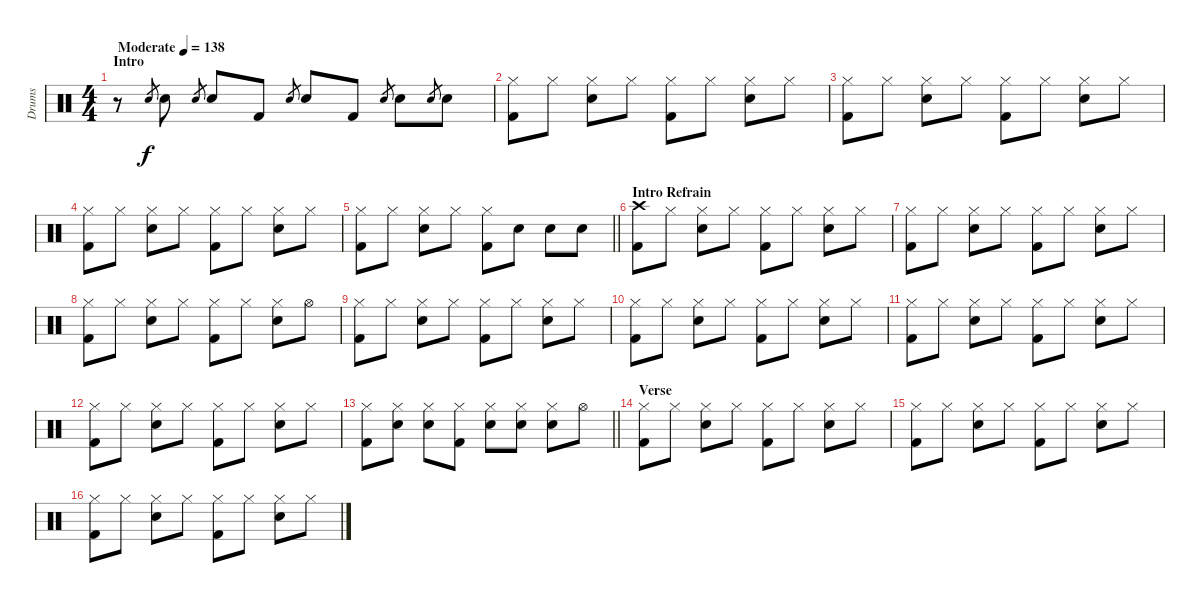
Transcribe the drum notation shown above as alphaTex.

\track ("Drums" "Drums") {instrument percussion}
\staff {score}
\articulation defaults
\ts (4 4)
\section ("" "Intro")
\tempo (138 "Moderate")
\clef neutral
\ks c
r.8{dy f} "Snare (hit) 2".8{gr} "Snare (hit) 2".8 "Snare (hit) 2".8{gr} "Snare (hit) 2".8 "Kick (hit) 2".8 "Snare (hit) 2".8{gr} "Snare (hit) 2".8 "Kick (hit) 2".8 "Snare (hit) 2".8{gr} "Snare (hit) 2".8 "Snare (hit) 2".8{gr} "Snare (hit) 2".8 |
("Hi-Hat (closed)" "Kick (hit) 2").8 "Hi-Hat (closed)".8 ("Hi-Hat (closed)" "Snare (hit) 2").8 "Hi-Hat (closed)".8 ("Hi-Hat (closed)" "Kick (hit) 2").8 "Hi-Hat (closed)".8 ("Hi-Hat (closed)" "Snare (hit) 2").8 "Hi-Hat (closed)".8 |
("Hi-Hat (closed)" "Kick (hit) 2").8 "Hi-Hat (closed)".8 ("Hi-Hat (closed)" "Snare (hit) 2").8 "Hi-Hat (closed)".8 ("Hi-Hat (closed)" "Kick (hit) 2").8 "Hi-Hat (closed)".8 ("Hi-Hat (closed)" "Snare (hit) 2").8 "Hi-Hat (closed)".8 |
("Hi-Hat (closed)" "Kick (hit) 2").8 "Hi-Hat (closed)".8 ("Hi-Hat (closed)" "Snare (hit) 2").8 "Hi-Hat (closed)".8 ("Hi-Hat (closed)" "Kick (hit) 2").8 "Hi-Hat (closed)".8 ("Hi-Hat (closed)" "Snare (hit) 2").8 "Hi-Hat (closed)".8 |
\barLineRight lightlight
("Hi-Hat (closed)" "Kick (hit) 2").8 "Hi-Hat (closed)".8 ("Hi-Hat (closed)" "Snare (hit) 2").8 "Hi-Hat (closed)".8 ("Hi-Hat (closed)" "Kick (hit) 2").8 "Snare (hit) 2".8 "Snare (hit) 2".8 "Snare (hit) 2".8 |
\section ("" "Intro Refrain")
("Crash high (hit)" "Kick (hit) 2").8 "Hi-Hat (closed)".8 ("Hi-Hat (closed)" "Snare (hit) 2").8 "Hi-Hat (closed)".8 ("Hi-Hat (closed)" "Kick (hit) 2").8 "Hi-Hat (closed)".8 ("Hi-Hat (closed)" "Snare (hit) 2").8 "Hi-Hat (closed)".8 |
("Hi-Hat (closed)" "Kick (hit) 2").8 "Hi-Hat (closed)".8 ("Hi-Hat (closed)" "Snare (hit) 2").8 "Hi-Hat (closed)".8 ("Hi-Hat (closed)" "Kick (hit) 2").8 "Hi-Hat (closed)".8 ("Hi-Hat (closed)" "Snare (hit) 2").8 "Hi-Hat (closed)".8 |
("Hi-Hat (closed)" "Kick (hit) 2").8 "Hi-Hat (closed)".8 ("Hi-Hat (closed)" "Snare (hit) 2").8 "Hi-Hat (closed)".8 ("Hi-Hat (closed)" "Kick (hit) 2").8 "Hi-Hat (closed)".8 ("Hi-Hat (closed)" "Snare (hit) 2").8 "Hi-Hat (open)".8 |
("Hi-Hat (closed)" "Kick (hit) 2").8 "Hi-Hat (closed)".8 ("Hi-Hat (closed)" "Snare (hit) 2").8 "Hi-Hat (closed)".8 ("Hi-Hat (closed)" "Kick (hit) 2").8 "Hi-Hat (closed)".8 ("Hi-Hat (closed)" "Snare (hit) 2").8 "Hi-Hat (closed)".8 |
("Hi-Hat (closed)" "Kick (hit) 2").8 "Hi-Hat (closed)".8 ("Hi-Hat (closed)" "Snare (hit) 2").8 "Hi-Hat (closed)".8 ("Hi-Hat (closed)" "Kick (hit) 2").8 "Hi-Hat (closed)".8 ("Hi-Hat (closed)" "Snare (hit) 2").8 "Hi-Hat (closed)".8 |
("Hi-Hat (closed)" "Kick (hit) 2").8 "Hi-Hat (closed)".8 ("Hi-Hat (closed)" "Snare (hit) 2").8 "Hi-Hat (closed)".8 ("Hi-Hat (closed)" "Kick (hit) 2").8 "Hi-Hat (closed)".8 ("Hi-Hat (closed)" "Snare (hit) 2").8 "Hi-Hat (closed)".8 |
("Hi-Hat (closed)" "Kick (hit) 2").8 "Hi-Hat (closed)".8 ("Hi-Hat (closed)" "Snare (hit) 2").8 "Hi-Hat (closed)".8 ("Hi-Hat (closed)" "Kick (hit) 2").8 "Hi-Hat (closed)".8 ("Hi-Hat (closed)" "Snare (hit) 2").8 "Hi-Hat (closed)".8 |
\barLineRight lightlight
("Hi-Hat (closed)" "Kick (hit) 2").8 ("Hi-Hat (closed)" "Snare (hit) 2").8 ("Hi-Hat (closed)" "Snare (hit) 2").8 ("Hi-Hat (closed)" "Kick (hit) 2").8 ("Hi-Hat (closed)" "Snare (hit) 2").8 ("Hi-Hat (closed)" "Snare (hit) 2").8 ("Hi-Hat (closed)" "Snare (hit) 2").8 "Hi-Hat (open)".8 |
\section ("" "Verse")
("Hi-Hat (closed)" "Kick (hit) 2").8 "Hi-Hat (closed)".8 ("Hi-Hat (closed)" "Snare (hit) 2").8 "Hi-Hat (closed)".8 ("Hi-Hat (closed)" "Kick (hit) 2").8 "Hi-Hat (closed)".8 ("Hi-Hat (closed)" "Snare (hit) 2").8 "Hi-Hat (closed)".8 |
("Hi-Hat (closed)" "Kick (hit) 2").8 "Hi-Hat (closed)".8 ("Hi-Hat (closed)" "Snare (hit) 2").8 "Hi-Hat (closed)".8 ("Hi-Hat (closed)" "Kick (hit) 2").8 "Hi-Hat (closed)".8 ("Hi-Hat (closed)" "Snare (hit) 2").8 "Hi-Hat (closed)".8 |
("Hi-Hat (closed)" "Kick (hit) 2").8 "Hi-Hat (closed)".8 ("Hi-Hat (closed)" "Snare (hit) 2").8 "Hi-Hat (closed)".8 ("Hi-Hat (closed)" "Kick (hit) 2").8 "Hi-Hat (closed)".8 ("Hi-Hat (closed)" "Snare (hit) 2").8 "Hi-Hat (closed)".8
